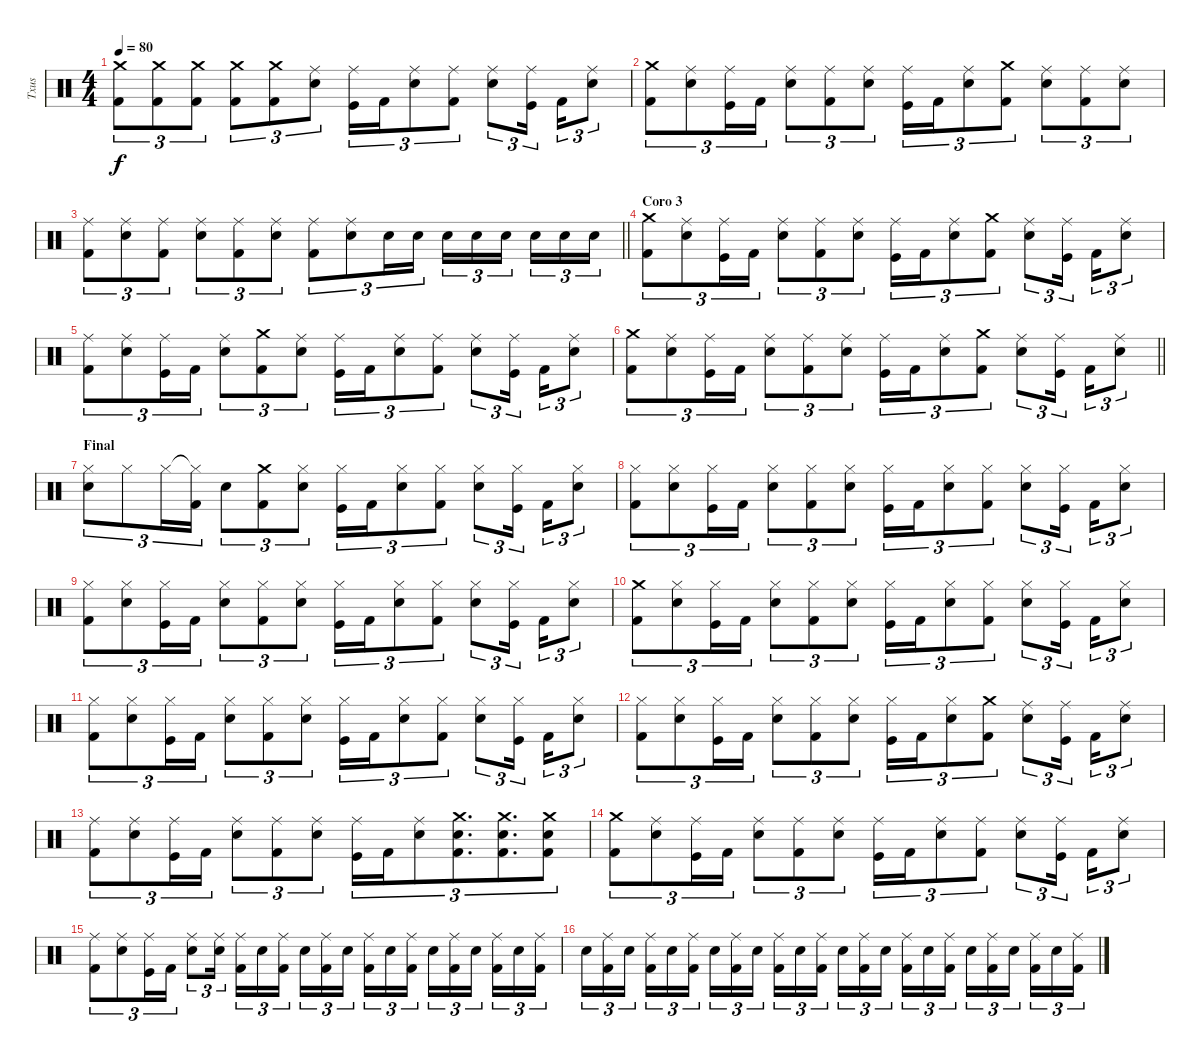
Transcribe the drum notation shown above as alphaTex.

\track ("Txus" "Txus") {instrument percussion}
\staff {score}
\articulation defaults
\ts (4 4)
\tempo 80
\clef neutral
\ks c
("Crash medium (hit)" "Kick (hit) 2").8{tu (3 2) dy f} ("Crash medium (hit)" "Kick (hit) 2").8{tu (3 2)} ("Crash medium (hit)" "Kick (hit) 2").8{tu (3 2)} ("Crash medium (hit)" "Kick (hit) 2").8{tu (3 2)} ("Crash medium (hit)" "Kick (hit) 2").8{tu (3 2)} ("Ride (middle)" "Electric Snare (hit)").8{tu (3 2)} ("Ride (middle)" "Kick (hit)").16{tu (3 2)} "Kick (hit) 2".16{tu (3 2)} ("Ride (middle)" "Electric Snare (hit)").8{tu (3 2)} ("Ride (middle)" "Kick (hit) 2").8{tu (3 2)} ("Ride (middle)" "Electric Snare (hit)").8{tu (3 2)} ("Ride (middle)" "Kick (hit)").16{tu (3 2) beam splitsecondary} "Kick (hit) 2".16{tu (3 2)} ("Ride (middle)" "Electric Snare (hit)").8{tu (3 2)} |
("Crash medium (hit)" "Kick (hit) 2").8{tu (3 2)} ("Ride (middle)" "Electric Snare (hit)").8{tu (3 2)} ("Ride (middle)" "Kick (hit)").16{tu (3 2)} "Kick (hit) 2".16{tu (3 2)} ("Ride (middle)" "Electric Snare (hit)").8{tu (3 2)} ("Ride (middle)" "Kick (hit) 2").8{tu (3 2)} ("Ride (middle)" "Electric Snare (hit)").8{tu (3 2)} ("Ride (middle)" "Kick (hit)").16{tu (3 2)} "Kick (hit) 2".16{tu (3 2)} ("Ride (middle)" "Electric Snare (hit)").8{tu (3 2)} ("Crash medium (hit)" "Kick (hit) 2").8{tu (3 2)} ("Ride (middle)" "Electric Snare (hit)").8{tu (3 2)} ("Ride (middle)" "Kick (hit) 2").8{tu (3 2)} ("Ride (middle)" "Electric Snare (hit)").8{tu (3 2)} |
\barLineRight lightlight
("Ride (middle)" "Kick (hit) 2").8{tu (3 2)} ("Ride (middle)" "Electric Snare (hit)").8{tu (3 2)} ("Ride (middle)" "Kick (hit) 2").8{tu (3 2)} ("Ride (middle)" "Electric Snare (hit)").8{tu (3 2)} ("Ride (middle)" "Kick (hit) 2").8{tu (3 2)} ("Ride (middle)" "Electric Snare (hit)").8{tu (3 2)} ("Ride (middle)" "Kick (hit) 2").8{tu (3 2)} ("Ride (middle)" "Electric Snare (hit)").8{tu (3 2)} "Electric Snare (hit)".16{tu (3 2)} "Electric Snare (hit)".16{tu (3 2)} "Electric Snare (hit)".16{tu (3 2)} "Electric Snare (hit)".16{tu (3 2)} "Electric Snare (hit)".16{tu (3 2) beam splitsecondary} "Electric Snare (hit)".16{tu (3 2)} "Electric Snare (hit)".16{tu (3 2)} "Electric Snare (hit)".16{tu (3 2)} |
\section ("" "Coro 3")
("Crash medium (hit)" "Kick (hit) 2").8{tu (3 2)} ("Ride (middle)" "Electric Snare (hit)").8{tu (3 2)} ("Ride (middle)" "Kick (hit)").16{tu (3 2)} "Kick (hit) 2".16{tu (3 2)} ("Ride (middle)" "Electric Snare (hit)").8{tu (3 2)} ("Ride (middle)" "Kick (hit) 2").8{tu (3 2)} ("Ride (middle)" "Electric Snare (hit)").8{tu (3 2)} ("Ride (middle)" "Kick (hit)").16{tu (3 2)} "Kick (hit) 2".16{tu (3 2)} ("Ride (middle)" "Electric Snare (hit)").8{tu (3 2)} ("Crash medium (hit)" "Kick (hit) 2").8{tu (3 2)} ("Ride (middle)" "Electric Snare (hit)").8{tu (3 2)} ("Ride (middle)" "Kick (hit)").16{tu (3 2) beam splitsecondary} "Kick (hit) 2".16{tu (3 2)} ("Ride (middle)" "Electric Snare (hit)").8{tu (3 2)} |
("Ride (middle)" "Kick (hit) 2").8{tu (3 2)} ("Ride (middle)" "Electric Snare (hit)").8{tu (3 2)} ("Ride (middle)" "Kick (hit)").16{tu (3 2)} "Kick (hit) 2".16{tu (3 2)} ("Ride (middle)" "Electric Snare (hit)").8{tu (3 2)} ("Crash medium (hit)" "Kick (hit) 2").8{tu (3 2)} ("Ride (middle)" "Electric Snare (hit)").8{tu (3 2)} ("Ride (middle)" "Kick (hit)").16{tu (3 2)} "Kick (hit) 2".16{tu (3 2)} ("Ride (middle)" "Electric Snare (hit)").8{tu (3 2)} ("Ride (middle)" "Kick (hit) 2").8{tu (3 2)} ("Ride (middle)" "Electric Snare (hit)").8{tu (3 2)} ("Ride (middle)" "Kick (hit)").16{tu (3 2) beam splitsecondary} "Kick (hit) 2".16{tu (3 2)} ("Ride (middle)" "Electric Snare (hit)").8{tu (3 2)} |
\barLineRight lightlight
("Crash medium (hit)" "Kick (hit) 2").8{tu (3 2)} ("Ride (middle)" "Electric Snare (hit)").8{tu (3 2)} ("Ride (middle)" "Kick (hit)").16{tu (3 2)} "Kick (hit) 2".16{tu (3 2)} ("Ride (middle)" "Electric Snare (hit)").8{tu (3 2)} ("Ride (middle)" "Kick (hit) 2").8{tu (3 2)} ("Ride (middle)" "Electric Snare (hit)").8{tu (3 2)} ("Ride (middle)" "Kick (hit)").16{tu (3 2)} "Kick (hit) 2".16{tu (3 2)} ("Ride (middle)" "Electric Snare (hit)").8{tu (3 2)} ("Crash medium (hit)" "Kick (hit) 2").8{tu (3 2)} ("Ride (middle)" "Electric Snare (hit)").8{tu (3 2)} ("Ride (middle)" "Kick (hit)").16{tu (3 2) beam splitsecondary} "Kick (hit) 2".16{tu (3 2)} ("Ride (middle)" "Electric Snare (hit)").8{tu (3 2)} |
\section ("" "Final")
("Hi-Hat (closed)" "Electric Snare (hit)").8{tu (3 2)} "Hi-Hat (closed)".8{tu (3 2)} "Hi-Hat (closed)".16{tu (3 2)} ("Hi-Hat (closed)"{t} "Kick (hit) 2").16{tu (3 2)} "Electric Snare (hit)".8{tu (3 2)} ("Crash medium (hit)" "Kick (hit) 2").8{tu (3 2)} ("Hi-Hat (closed)" "Electric Snare (hit)").8{tu (3 2)} ("Hi-Hat (closed)" "Kick (hit)").16{tu (3 2)} "Kick (hit) 2".16{tu (3 2)} ("Hi-Hat (closed)" "Electric Snare (hit)").8{tu (3 2)} ("Hi-Hat (closed)" "Kick (hit) 2").8{tu (3 2)} ("Hi-Hat (closed)" "Electric Snare (hit)").8{tu (3 2)} ("Hi-Hat (closed)" "Kick (hit)").16{tu (3 2) beam splitsecondary} "Kick (hit) 2".16{tu (3 2)} ("Hi-Hat (closed)" "Electric Snare (hit)").8{tu (3 2)} |
("Hi-Hat (closed)" "Kick (hit) 2").8{tu (3 2)} ("Hi-Hat (closed)" "Electric Snare (hit)").8{tu (3 2)} ("Hi-Hat (closed)" "Kick (hit)").16{tu (3 2)} "Kick (hit) 2".16{tu (3 2)} ("Hi-Hat (closed)" "Electric Snare (hit)").8{tu (3 2)} ("Hi-Hat (closed)" "Kick (hit) 2").8{tu (3 2)} ("Hi-Hat (closed)" "Electric Snare (hit)").8{tu (3 2)} ("Hi-Hat (closed)" "Kick (hit)").16{tu (3 2)} "Kick (hit) 2".16{tu (3 2)} ("Hi-Hat (closed)" "Electric Snare (hit)").8{tu (3 2)} ("Hi-Hat (closed)" "Kick (hit) 2").8{tu (3 2)} ("Hi-Hat (closed)" "Electric Snare (hit)").8{tu (3 2)} ("Hi-Hat (closed)" "Kick (hit)").16{tu (3 2) beam splitsecondary} "Kick (hit) 2".16{tu (3 2)} ("Hi-Hat (closed)" "Electric Snare (hit)").8{tu (3 2)} |
("Hi-Hat (closed)" "Kick (hit) 2").8{tu (3 2)} ("Hi-Hat (closed)" "Electric Snare (hit)").8{tu (3 2)} ("Hi-Hat (closed)" "Kick (hit)").16{tu (3 2)} "Kick (hit) 2".16{tu (3 2)} ("Hi-Hat (closed)" "Electric Snare (hit)").8{tu (3 2)} ("Hi-Hat (closed)" "Kick (hit) 2").8{tu (3 2)} ("Hi-Hat (closed)" "Electric Snare (hit)").8{tu (3 2)} ("Hi-Hat (closed)" "Kick (hit)").16{tu (3 2)} "Kick (hit) 2".16{tu (3 2)} ("Hi-Hat (closed)" "Electric Snare (hit)").8{tu (3 2)} ("Hi-Hat (closed)" "Kick (hit) 2").8{tu (3 2)} ("Hi-Hat (closed)" "Electric Snare (hit)").8{tu (3 2)} ("Hi-Hat (closed)" "Kick (hit)").16{tu (3 2) beam splitsecondary} "Kick (hit) 2".16{tu (3 2)} ("Hi-Hat (closed)" "Electric Snare (hit)").8{tu (3 2)} |
("Crash medium (hit)" "Kick (hit) 2").8{tu (3 2)} ("Hi-Hat (closed)" "Electric Snare (hit)").8{tu (3 2)} ("Hi-Hat (closed)" "Kick (hit)").16{tu (3 2)} "Kick (hit) 2".16{tu (3 2)} ("Hi-Hat (closed)" "Electric Snare (hit)").8{tu (3 2)} ("Hi-Hat (closed)" "Kick (hit) 2").8{tu (3 2)} ("Hi-Hat (closed)" "Electric Snare (hit)").8{tu (3 2)} ("Hi-Hat (closed)" "Kick (hit)").16{tu (3 2)} "Kick (hit) 2".16{tu (3 2)} ("Hi-Hat (closed)" "Electric Snare (hit)").8{tu (3 2)} ("Hi-Hat (closed)" "Kick (hit) 2").8{tu (3 2)} ("Hi-Hat (closed)" "Electric Snare (hit)").8{tu (3 2)} ("Hi-Hat (closed)" "Kick (hit)").16{tu (3 2) beam splitsecondary} "Kick (hit) 2".16{tu (3 2)} ("Hi-Hat (closed)" "Electric Snare (hit)").8{tu (3 2)} |
("Hi-Hat (closed)" "Kick (hit) 2").8{tu (3 2)} ("Hi-Hat (closed)" "Electric Snare (hit)").8{tu (3 2)} ("Hi-Hat (closed)" "Kick (hit)").16{tu (3 2)} "Kick (hit) 2".16{tu (3 2)} ("Hi-Hat (closed)" "Electric Snare (hit)").8{tu (3 2)} ("Hi-Hat (closed)" "Kick (hit) 2").8{tu (3 2)} ("Hi-Hat (closed)" "Electric Snare (hit)").8{tu (3 2)} ("Hi-Hat (closed)" "Kick (hit)").16{tu (3 2)} "Kick (hit) 2".16{tu (3 2)} ("Hi-Hat (closed)" "Electric Snare (hit)").8{tu (3 2)} ("Hi-Hat (closed)" "Kick (hit) 2").8{tu (3 2)} ("Hi-Hat (closed)" "Electric Snare (hit)").8{tu (3 2)} ("Hi-Hat (closed)" "Kick (hit)").16{tu (3 2) beam splitsecondary} "Kick (hit) 2".16{tu (3 2)} ("Hi-Hat (closed)" "Electric Snare (hit)").8{tu (3 2)} |
("Hi-Hat (closed)" "Kick (hit) 2").8{tu (3 2)} ("Hi-Hat (closed)" "Electric Snare (hit)").8{tu (3 2)} ("Hi-Hat (closed)" "Kick (hit)").16{tu (3 2)} "Kick (hit) 2".16{tu (3 2)} ("Hi-Hat (closed)" "Electric Snare (hit)").8{tu (3 2)} ("Hi-Hat (closed)" "Kick (hit) 2").8{tu (3 2)} ("Hi-Hat (closed)" "Electric Snare (hit)").8{tu (3 2)} ("Hi-Hat (closed)" "Kick (hit)").16{tu (3 2)} "Kick (hit) 2".16{tu (3 2)} ("Hi-Hat (closed)" "Electric Snare (hit)").8{tu (3 2)} ("Crash medium (hit)" "Kick (hit) 2").8{tu (3 2)} ("Ride (middle)" "Electric Snare (hit)").8{tu (3 2)} ("Ride (middle)" "Kick (hit)").16{tu (3 2) beam splitsecondary} "Kick (hit) 2".16{tu (3 2)} ("Ride (middle)" "Electric Snare (hit)").8{tu (3 2)} |
("Ride (middle)" "Kick (hit) 2").8{tu (3 2)} ("Ride (middle)" "Electric Snare (hit)").8{tu (3 2)} ("Ride (middle)" "Kick (hit)").16{tu (3 2)} "Kick (hit) 2".16{tu (3 2)} ("Ride (middle)" "Electric Snare (hit)").8{tu (3 2)} ("Ride (middle)" "Kick (hit) 2").8{tu (3 2)} ("Ride (middle)" "Electric Snare (hit)").8{tu (3 2)} ("Ride (middle)" "Kick (hit)").16{tu (3 2)} "Kick (hit) 2".16{tu (3 2)} ("Ride (middle)" "Electric Snare (hit)").8{tu (3 2)} ("Crash medium (hit)" "Electric Snare (hit)" "Kick (hit) 2").8{d tu (3 2)} ("Crash medium (hit)" "Electric Snare (hit)" "Kick (hit) 2").8{d tu (3 2)} ("Crash medium (hit)" "Electric Snare (hit)" "Kick (hit) 2").8{tu (3 2)} |
("Crash medium (hit)" "Kick (hit) 2").8{tu (3 2)} ("Ride (middle)" "Electric Snare (hit)").8{tu (3 2)} ("Ride (middle)" "Kick (hit)").16{tu (3 2)} "Kick (hit) 2".16{tu (3 2)} ("Ride (middle)" "Electric Snare (hit)").8{tu (3 2)} ("Ride (middle)" "Kick (hit) 2").8{tu (3 2)} ("Ride (middle)" "Electric Snare (hit)").8{tu (3 2)} ("Ride (middle)" "Kick (hit)").16{tu (3 2)} "Kick (hit) 2".16{tu (3 2)} ("Ride (middle)" "Electric Snare (hit)").8{tu (3 2)} ("Ride (middle)" "Kick (hit) 2").8{tu (3 2)} ("Ride (middle)" "Electric Snare (hit)").8{tu (3 2)} ("Ride (middle)" "Kick (hit)").16{tu (3 2) beam splitsecondary} "Kick (hit) 2".16{tu (3 2)} ("Ride (middle)" "Electric Snare (hit)").8{tu (3 2)} |
("Ride (middle)" "Kick (hit) 2").8{tu (3 2)} ("Ride (middle)" "Electric Snare (hit)").8{tu (3 2)} ("Ride (middle)" "Kick (hit)").16{tu (3 2)} "Kick (hit) 2".16{tu (3 2)} ("Ride (middle)" "Electric Snare (hit)").8{tu (3 2)} ("Ride (middle)" "Electric Snare (hit)").16{tu (3 2) beam splitsecondary} ("Ride (middle)" "Kick (hit) 2").16{tu (3 2)} "Electric Snare (hit)".16{tu (3 2)} ("Ride (middle)" "Kick (hit) 2").16{tu (3 2)} "Electric Snare (hit)".16{tu (3 2)} ("Ride (middle)" "Kick (hit) 2").16{tu (3 2)} "Electric Snare (hit)".16{tu (3 2) beam splitsecondary} ("Ride (middle)" "Kick (hit) 2").16{tu (3 2)} "Electric Snare (hit)".16{tu (3 2)} ("Ride (middle)" "Kick (hit) 2").16{tu (3 2)} "Electric Snare (hit)".16{tu (3 2)} ("Ride (middle)" "Kick (hit) 2").16{tu (3 2)} "Electric Snare (hit)".16{tu (3 2) beam splitsecondary} ("Ride (middle)" "Kick (hit) 2").16{tu (3 2)} "Electric Snare (hit)".16{tu (3 2)} ("Ride (middle)" "Kick (hit) 2").16{tu (3 2)} |
"Electric Snare (hit)".16{tu (3 2)} ("Ride (middle)" "Kick (hit) 2").16{tu (3 2)} "Electric Snare (hit)".16{tu (3 2) beam splitsecondary} ("Ride (middle)" "Kick (hit) 2").16{tu (3 2)} "Electric Snare (hit)".16{tu (3 2)} ("Ride (middle)" "Kick (hit) 2").16{tu (3 2)} "Electric Snare (hit)".16{tu (3 2)} ("Ride (middle)" "Kick (hit) 2").16{tu (3 2)} "Electric Snare (hit)".16{tu (3 2) beam splitsecondary} ("Ride (middle)" "Kick (hit) 2").16{tu (3 2)} "Electric Snare (hit)".16{tu (3 2)} ("Ride (middle)" "Kick (hit) 2").16{tu (3 2)} "Electric Snare (hit)".16{tu (3 2)} ("Ride (middle)" "Kick (hit) 2").16{tu (3 2)} "Electric Snare (hit)".16{tu (3 2) beam splitsecondary} ("Ride (middle)" "Kick (hit) 2").16{tu (3 2)} "Electric Snare (hit)".16{tu (3 2)} ("Ride (middle)" "Kick (hit) 2").16{tu (3 2)} "Electric Snare (hit)".16{tu (3 2)} ("Ride (middle)" "Kick (hit) 2").16{tu (3 2)} "Electric Snare (hit)".16{tu (3 2) beam splitsecondary} ("Ride (middle)" "Kick (hit) 2").16{tu (3 2)} "Electric Snare (hit)".16{tu (3 2)} ("Ride (middle)" "Kick (hit) 2").16{tu (3 2)}
